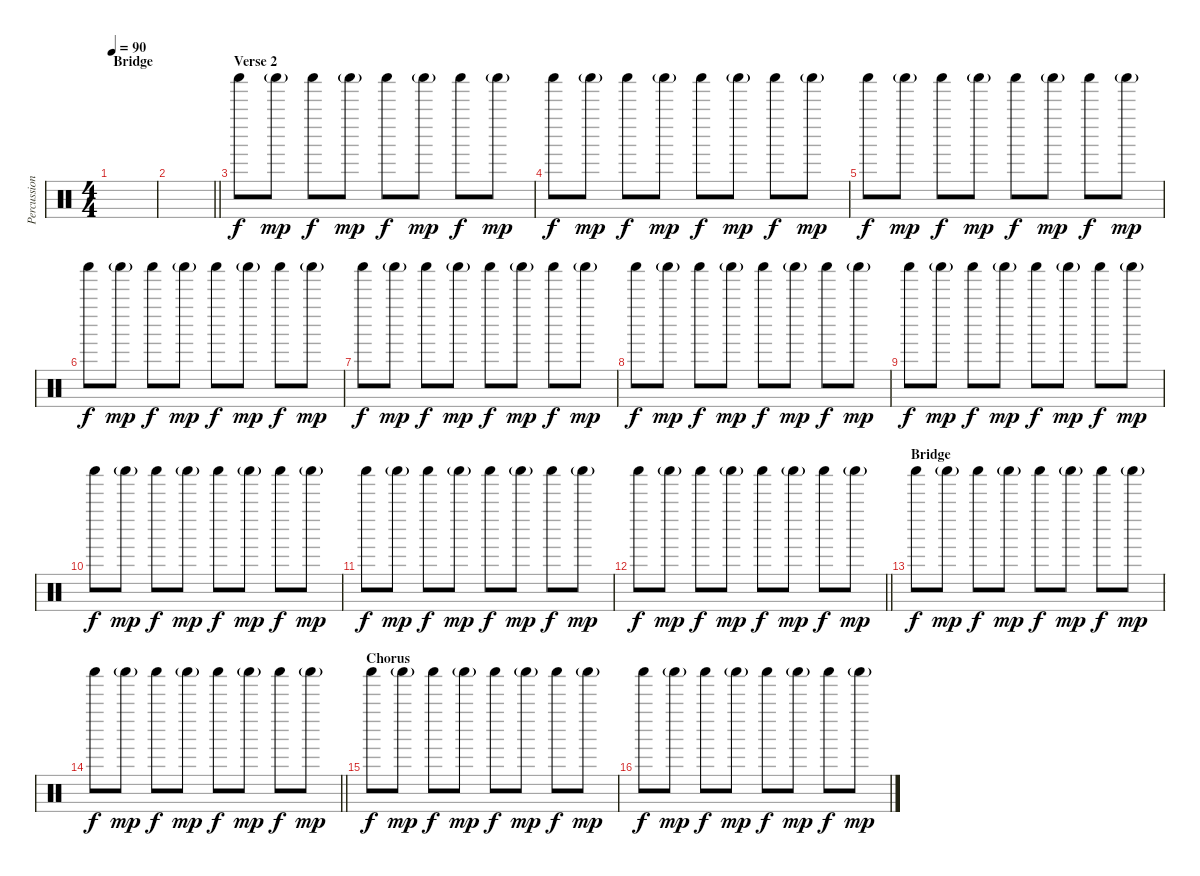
\track ("Percussion 2" "Percussion") {instrument percussion}
\staff {score}
\articulation defaults
\ts (4 4)
\section ("" "Bridge")
\tempo 90
\clef neutral
\ks c
|
\barLineRight lightlight
|
\section ("" "Verse 2")
"Shaker (hit)".8 "Shaker (hit)"{g}.8{dy mp} "Shaker (hit)".8{dy f} "Shaker (hit)"{g}.8{dy mp} "Shaker (hit)".8{dy f} "Shaker (hit)"{g}.8{dy mp} "Shaker (hit)".8{dy f} "Shaker (hit)"{g}.8{dy mp} |
"Shaker (hit)".8{dy f} "Shaker (hit)"{g}.8{dy mp} "Shaker (hit)".8{dy f} "Shaker (hit)"{g}.8{dy mp} "Shaker (hit)".8{dy f} "Shaker (hit)"{g}.8{dy mp} "Shaker (hit)".8{dy f} "Shaker (hit)"{g}.8{dy mp} |
"Shaker (hit)".8{dy f} "Shaker (hit)"{g}.8{dy mp} "Shaker (hit)".8{dy f} "Shaker (hit)"{g}.8{dy mp} "Shaker (hit)".8{dy f} "Shaker (hit)"{g}.8{dy mp} "Shaker (hit)".8{dy f} "Shaker (hit)"{g}.8{dy mp} |
"Shaker (hit)".8{dy f} "Shaker (hit)"{g}.8{dy mp} "Shaker (hit)".8{dy f} "Shaker (hit)"{g}.8{dy mp} "Shaker (hit)".8{dy f} "Shaker (hit)"{g}.8{dy mp} "Shaker (hit)".8{dy f} "Shaker (hit)"{g}.8{dy mp} |
"Shaker (hit)".8{dy f} "Shaker (hit)"{g}.8{dy mp} "Shaker (hit)".8{dy f} "Shaker (hit)"{g}.8{dy mp} "Shaker (hit)".8{dy f} "Shaker (hit)"{g}.8{dy mp} "Shaker (hit)".8{dy f} "Shaker (hit)"{g}.8{dy mp} |
"Shaker (hit)".8{dy f} "Shaker (hit)"{g}.8{dy mp} "Shaker (hit)".8{dy f} "Shaker (hit)"{g}.8{dy mp} "Shaker (hit)".8{dy f} "Shaker (hit)"{g}.8{dy mp} "Shaker (hit)".8{dy f} "Shaker (hit)"{g}.8{dy mp} |
"Shaker (hit)".8{dy f} "Shaker (hit)"{g}.8{dy mp} "Shaker (hit)".8{dy f} "Shaker (hit)"{g}.8{dy mp} "Shaker (hit)".8{dy f} "Shaker (hit)"{g}.8{dy mp} "Shaker (hit)".8{dy f} "Shaker (hit)"{g}.8{dy mp} |
"Shaker (hit)".8{dy f} "Shaker (hit)"{g}.8{dy mp} "Shaker (hit)".8{dy f} "Shaker (hit)"{g}.8{dy mp} "Shaker (hit)".8{dy f} "Shaker (hit)"{g}.8{dy mp} "Shaker (hit)".8{dy f} "Shaker (hit)"{g}.8{dy mp} |
"Shaker (hit)".8{dy f} "Shaker (hit)"{g}.8{dy mp} "Shaker (hit)".8{dy f} "Shaker (hit)"{g}.8{dy mp} "Shaker (hit)".8{dy f} "Shaker (hit)"{g}.8{dy mp} "Shaker (hit)".8{dy f} "Shaker (hit)"{g}.8{dy mp} |
\barLineRight lightlight "Shaker (hit)".8{dy f} "Shaker (hit)"{g}.8{dy mp} "Shaker (hit)".8{dy f} "Shaker (hit)"{g}.8{dy mp} "Shaker (hit)".8{dy f} "Shaker (hit)"{g}.8{dy mp} "Shaker (hit)".8{dy f} "Shaker (hit)"{g}.8{dy mp}
|
\section ("" "Bridge")
"Shaker (hit)".8{dy f} "Shaker (hit)"{g}.8{dy mp} "Shaker (hit)".8{dy f} "Shaker (hit)"{g}.8{dy mp} "Shaker (hit)".8{dy f} "Shaker (hit)"{g}.8{dy mp} "Shaker (hit)".8{dy f} "Shaker (hit)"{g}.8{dy mp} |
\barLineRight lightlight "Shaker (hit)".8{dy f} "Shaker (hit)"{g}.8{dy mp} "Shaker (hit)".8{dy f} "Shaker (hit)"{g}.8{dy mp} "Shaker (hit)".8{dy f} "Shaker (hit)"{g}.8{dy mp} "Shaker (hit)".8{dy f} "Shaker (hit)"{g}.8{dy mp}
|
\section ("" "Chorus")
"Shaker (hit)".8{dy f} "Shaker (hit)"{g}.8{dy mp} "Shaker (hit)".8{dy f} "Shaker (hit)"{g}.8{dy mp} "Shaker (hit)".8{dy f} "Shaker (hit)"{g}.8{dy mp} "Shaker (hit)".8{dy f} "Shaker (hit)"{g}.8{dy mp} |
"Shaker (hit)".8{dy f} "Shaker (hit)"{g}.8{dy mp} "Shaker (hit)".8{dy f} "Shaker (hit)"{g}.8{dy mp} "Shaker (hit)".8{dy f} "Shaker (hit)"{g}.8{dy mp} "Shaker (hit)".8{dy f} "Shaker (hit)"{g}.8{dy mp}
